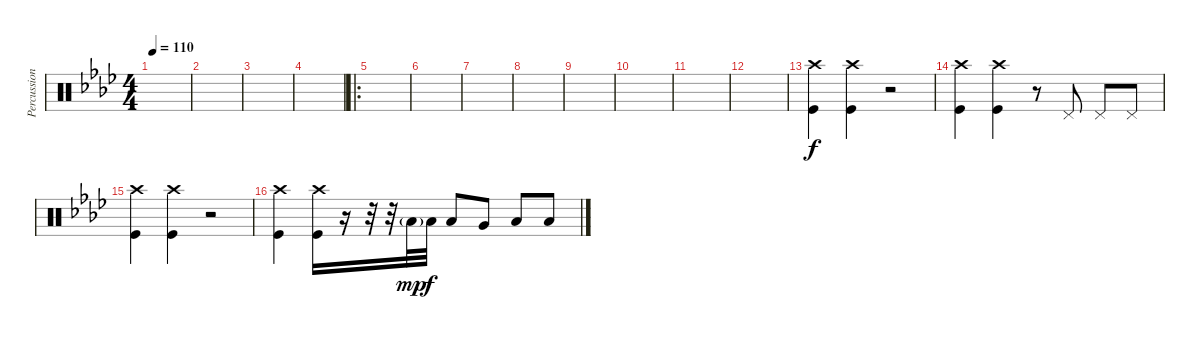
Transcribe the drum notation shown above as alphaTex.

\track ("Percussions" "Percussion") {instrument percussion}
\staff {score}
\articulation defaults
\ts (4 4)
\tempo 110
\clef neutral
\ks ab
|
|
|
|
\ro
|
|
|
|
|
|
|
|
("Crash high (hit)" "Kick (hit)").4 ("Crash high (hit)" "Kick (hit)").4 r.2 |
("Crash high (hit)" "Kick (hit)").4 ("Crash high (hit)" "Kick (hit)").4 r.8 "Pedal Hi-Hat (hit)".8 "Pedal Hi-Hat (hit)".8 "Pedal Hi-Hat (hit)".8 |
("Crash high (hit)" "Kick (hit)").4 ("Crash high (hit)" "Kick (hit)").4 r.2 |
("Crash high (hit)" "Kick (hit)").4 ("Crash high (hit)" "Kick (hit)").16 r.16 r.32 r.32 "Low Tom (hit)"{g}.32{dy mp} "Low Tom (hit)".32{dy f} "Low Tom (hit)".8 "Very Low Tom (hit)".8 "Low Floor Tom (hit)".8 "Low Floor Tom (hit)".8
